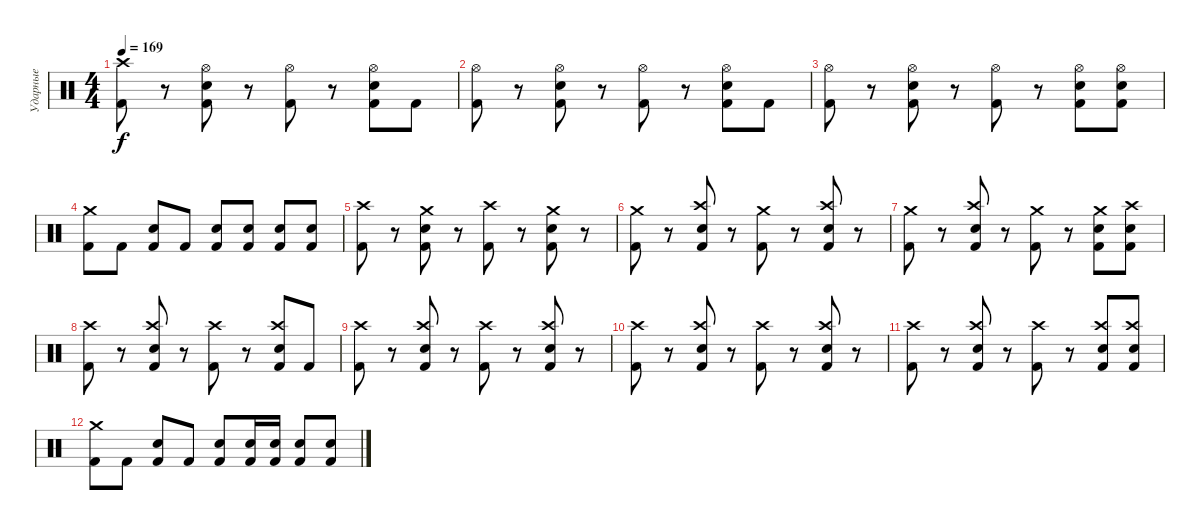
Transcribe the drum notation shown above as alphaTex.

\track ("Ударные" "Ударные") {instrument percussion}
\staff {score}
\articulation defaults
\ts (4 4)
\tempo 169
\clef neutral
\ks c
("Kick (hit) 2" "Crash high (hit)").8{dy f} r.8 ("Snare (hit) 2" "Kick (hit) 2" "Hi-Hat (open)").8 r.8 ("Kick (hit) 2" "Hi-Hat (open)").8 r.8 ("Snare (hit) 2" "Kick (hit) 2" "Hi-Hat (open)").8 "Kick (hit) 2".8 |
("Kick (hit) 2" "Hi-Hat (open)").8 r.8 ("Snare (hit) 2" "Kick (hit) 2" "Hi-Hat (open)").8 r.8 ("Kick (hit) 2" "Hi-Hat (open)").8 r.8 ("Snare (hit) 2" "Kick (hit) 2" "Hi-Hat (open)").8 "Kick (hit) 2".8 |
("Kick (hit) 2" "Hi-Hat (open)").8 r.8 ("Snare (hit) 2" "Kick (hit) 2" "Hi-Hat (open)").8 r.8 ("Kick (hit) 2" "Hi-Hat (open)").8 r.8 ("Snare (hit) 2" "Kick (hit) 2" "Hi-Hat (open)").8 ("Snare (hit) 2" "Kick (hit) 2" "Hi-Hat (open)").8 |
("Kick (hit) 2" "Crash medium (hit)").8 "Kick (hit) 2".8 ("Snare (hit) 2" "Kick (hit) 2").8 "Kick (hit) 2".8 ("Snare (hit) 2" "Kick (hit) 2").8 ("Snare (hit) 2" "Kick (hit) 2").8 ("Snare (hit) 2" "Kick (hit) 2").8 ("Snare (hit) 2" "Kick (hit) 2").8 |
("Kick (hit) 2" "Crash high (hit)").8 r.8 ("Snare (hit) 2" "Kick (hit) 2" "Crash medium (hit)").8 r.8 ("Kick (hit) 2" "Crash high (hit)").8 r.8 ("Snare (hit) 2" "Kick (hit) 2" "Crash medium (hit)").8 r.8 |
("Kick (hit) 2" "Crash medium (hit)").8 r.8 ("Snare (hit) 2" "Kick (hit) 2" "Crash high (hit)").8 r.8 ("Kick (hit) 2" "Crash medium (hit)").8 r.8 ("Snare (hit) 2" "Kick (hit) 2" "Crash high (hit)").8 r.8 |
("Kick (hit) 2" "Crash medium (hit)").8 r.8 ("Snare (hit) 2" "Kick (hit) 2" "Crash high (hit)").8 r.8 ("Kick (hit) 2" "Crash medium (hit)").8 r.8 ("Snare (hit) 2" "Kick (hit) 2" "Crash medium (hit)").8 ("Snare (hit) 2" "Kick (hit) 2" "Crash high (hit)").8 |
("Kick (hit) 2" "Crash high (hit)").8 r.8 ("Snare (hit) 2" "Kick (hit) 2" "Crash high (hit)").8 r.8 ("Kick (hit) 2" "Crash high (hit)").8 r.8 ("Snare (hit) 2" "Kick (hit) 2" "Crash high (hit)").8 "Kick (hit) 2".8 |
("Kick (hit) 2" "Crash high (hit)").8 r.8 ("Snare (hit) 2" "Kick (hit) 2" "Crash high (hit)").8 r.8 ("Kick (hit) 2" "Crash high (hit)").8 r.8 ("Snare (hit) 2" "Kick (hit) 2" "Crash high (hit)").8 r.8 |
("Kick (hit) 2" "Crash high (hit)").8 r.8 ("Snare (hit) 2" "Kick (hit) 2" "Crash high (hit)").8 r.8 ("Kick (hit) 2" "Crash high (hit)").8 r.8 ("Snare (hit) 2" "Kick (hit) 2" "Crash high (hit)").8 r.8 |
("Kick (hit) 2" "Crash high (hit)").8 r.8 ("Snare (hit) 2" "Kick (hit) 2" "Crash high (hit)").8 r.8 ("Kick (hit) 2" "Crash high (hit)").8 r.8 ("Snare (hit) 2" "Kick (hit) 2" "Crash high (hit)").8 ("Snare (hit) 2" "Kick (hit) 2" "Crash high (hit)").8 |
("Kick (hit) 2" "Crash medium (hit)").8 "Kick (hit) 2".8 ("Snare (hit) 2" "Kick (hit) 2").8 "Kick (hit) 2".8 ("Snare (hit) 2" "Kick (hit) 2").8 ("Snare (hit) 2" "Kick (hit) 2").16 ("Snare (hit) 2" "Kick (hit) 2").16 ("Snare (hit) 2" "Kick (hit) 2").8 ("Kick (hit) 2" "Snare (hit) 2").8
